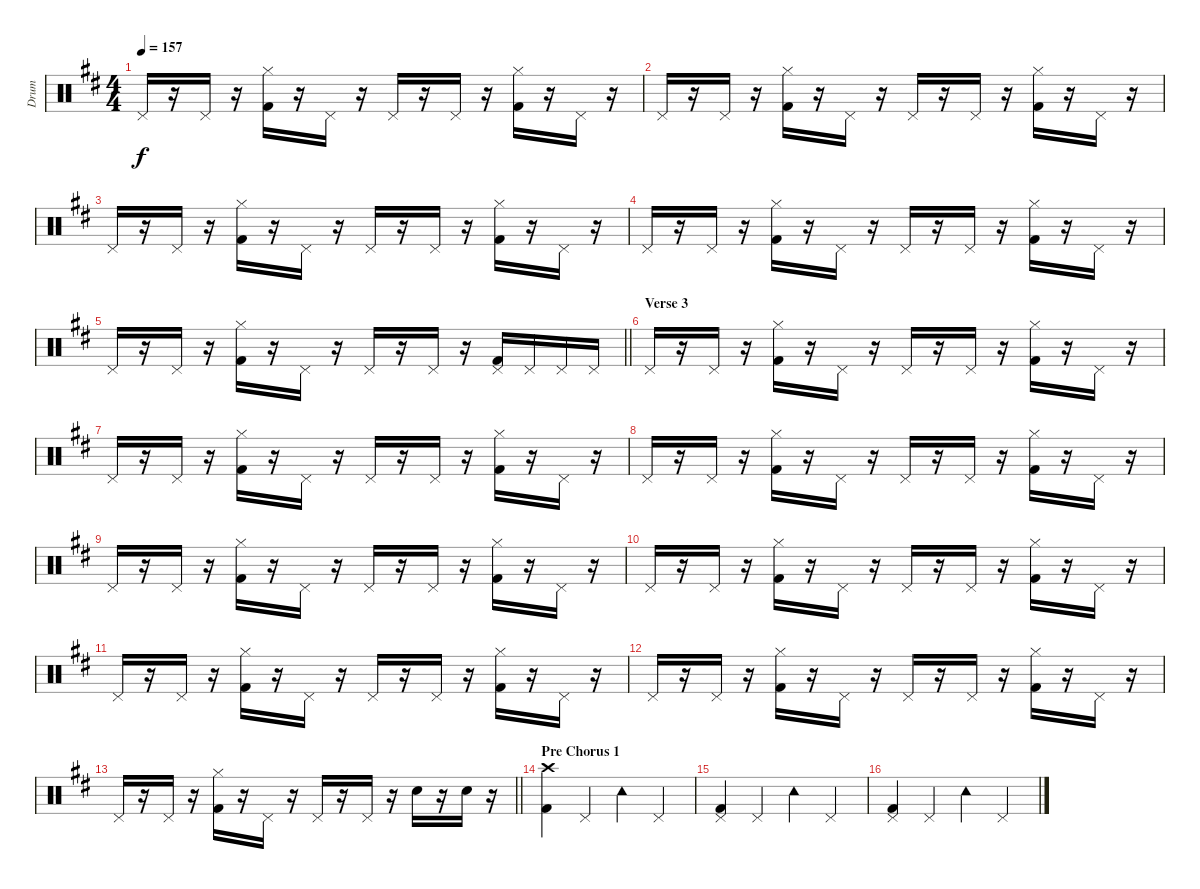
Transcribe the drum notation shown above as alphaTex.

\track ("Drum" "Drum") {instrument percussion}
\staff {score}
\articulation defaults
\ts (4 4)
\tempo 157
\clef neutral
\ks d "Pedal Hi-Hat (hit)".16{dy f}
r.16 "Pedal Hi-Hat (hit)".16 r.16 ("Hi-Hat (closed)" "Kick (hit) 2").16 r.16 "Pedal Hi-Hat (hit)".16 r.16 "Pedal Hi-Hat (hit)".16 r.16 "Pedal Hi-Hat (hit)".16 r.16 ("Hi-Hat (closed)" "Kick (hit) 2").16 r.16 "Pedal Hi-Hat (hit)".16 r.16 |
"Pedal Hi-Hat (hit)".16 r.16 "Pedal Hi-Hat (hit)".16 r.16 ("Hi-Hat (closed)" "Kick (hit) 2").16 r.16 "Pedal Hi-Hat (hit)".16 r.16 "Pedal Hi-Hat (hit)".16 r.16 "Pedal Hi-Hat (hit)".16 r.16 ("Hi-Hat (closed)" "Kick (hit) 2").16 r.16 "Pedal Hi-Hat (hit)".16 r.16 |
"Pedal Hi-Hat (hit)".16 r.16 "Pedal Hi-Hat (hit)".16 r.16 ("Hi-Hat (closed)" "Kick (hit) 2").16 r.16 "Pedal Hi-Hat (hit)".16 r.16 "Pedal Hi-Hat (hit)".16 r.16 "Pedal Hi-Hat (hit)".16 r.16 ("Hi-Hat (closed)" "Kick (hit) 2").16 r.16 "Pedal Hi-Hat (hit)".16 r.16 |
"Pedal Hi-Hat (hit)".16 r.16 "Pedal Hi-Hat (hit)".16 r.16 ("Hi-Hat (closed)" "Kick (hit) 2").16 r.16 "Pedal Hi-Hat (hit)".16 r.16 "Pedal Hi-Hat (hit)".16 r.16 "Pedal Hi-Hat (hit)".16 r.16 ("Hi-Hat (closed)" "Kick (hit) 2").16 r.16 "Pedal Hi-Hat (hit)".16 r.16 |
\barLineRight lightlight "Pedal Hi-Hat (hit)".16
r.16 "Pedal Hi-Hat (hit)".16 r.16 ("Hi-Hat (closed)" "Kick (hit) 2").16 r.16 "Pedal Hi-Hat (hit)".16 r.16 "Pedal Hi-Hat (hit)".16 r.16 "Pedal Hi-Hat (hit)".16 r.16 ("Pedal Hi-Hat (hit)" "Kick (hit) 2").16 "Pedal Hi-Hat (hit)".16 "Pedal Hi-Hat (hit)".16 "Pedal Hi-Hat (hit)".16 |
\section ("" "Verse 3")
"Pedal Hi-Hat (hit)".16 r.16 "Pedal Hi-Hat (hit)".16 r.16 ("Hi-Hat (closed)" "Kick (hit) 2").16 r.16 "Pedal Hi-Hat (hit)".16 r.16 "Pedal Hi-Hat (hit)".16 r.16 "Pedal Hi-Hat (hit)".16 r.16 ("Hi-Hat (closed)" "Kick (hit) 2").16 r.16 "Pedal Hi-Hat (hit)".16 r.16 |
"Pedal Hi-Hat (hit)".16 r.16 "Pedal Hi-Hat (hit)".16 r.16 ("Hi-Hat (closed)" "Kick (hit) 2").16 r.16 "Pedal Hi-Hat (hit)".16 r.16 "Pedal Hi-Hat (hit)".16 r.16 "Pedal Hi-Hat (hit)".16 r.16 ("Hi-Hat (closed)" "Kick (hit) 2").16 r.16 "Pedal Hi-Hat (hit)".16 r.16 |
"Pedal Hi-Hat (hit)".16 r.16 "Pedal Hi-Hat (hit)".16 r.16 ("Hi-Hat (closed)" "Kick (hit) 2").16 r.16 "Pedal Hi-Hat (hit)".16 r.16 "Pedal Hi-Hat (hit)".16 r.16 "Pedal Hi-Hat (hit)".16 r.16 ("Hi-Hat (closed)" "Kick (hit) 2").16 r.16 "Pedal Hi-Hat (hit)".16 r.16 |
"Pedal Hi-Hat (hit)".16 r.16 "Pedal Hi-Hat (hit)".16 r.16 ("Hi-Hat (closed)" "Kick (hit) 2").16 r.16 "Pedal Hi-Hat (hit)".16 r.16 "Pedal Hi-Hat (hit)".16 r.16 "Pedal Hi-Hat (hit)".16 r.16 ("Hi-Hat (closed)" "Kick (hit) 2").16 r.16 "Pedal Hi-Hat (hit)".16 r.16 |
"Pedal Hi-Hat (hit)".16 r.16 "Pedal Hi-Hat (hit)".16 r.16 ("Hi-Hat (closed)" "Kick (hit) 2").16 r.16 "Pedal Hi-Hat (hit)".16 r.16 "Pedal Hi-Hat (hit)".16 r.16 "Pedal Hi-Hat (hit)".16 r.16 ("Hi-Hat (closed)" "Kick (hit) 2").16 r.16 "Pedal Hi-Hat (hit)".16 r.16 |
"Pedal Hi-Hat (hit)".16 r.16 "Pedal Hi-Hat (hit)".16 r.16 ("Hi-Hat (closed)" "Kick (hit) 2").16 r.16 "Pedal Hi-Hat (hit)".16 r.16 "Pedal Hi-Hat (hit)".16 r.16 "Pedal Hi-Hat (hit)".16 r.16 ("Hi-Hat (closed)" "Kick (hit) 2").16 r.16 "Pedal Hi-Hat (hit)".16 r.16 |
"Pedal Hi-Hat (hit)".16 r.16 "Pedal Hi-Hat (hit)".16 r.16 ("Hi-Hat (closed)" "Kick (hit) 2").16 r.16 "Pedal Hi-Hat (hit)".16 r.16 "Pedal Hi-Hat (hit)".16 r.16 "Pedal Hi-Hat (hit)".16 r.16 ("Hi-Hat (closed)" "Kick (hit) 2").16 r.16 "Pedal Hi-Hat (hit)".16 r.16 |
\barLineRight lightlight "Pedal Hi-Hat (hit)".16
r.16 "Pedal Hi-Hat (hit)".16 r.16 ("Hi-Hat (closed)" "Kick (hit) 2").16 r.16 "Pedal Hi-Hat (hit)".16 r.16 "Pedal Hi-Hat (hit)".16 r.16 "Pedal Hi-Hat (hit)".16 r.16 "Electric Snare (hit)".16 r.16 "Electric Snare (hit)".16 r.16 |
\section ("" "Pre Chorus 1 ")
("Kick (hit) 2" "Crash high (hit)").4 "Pedal Hi-Hat (hit)".4 "Tambourine (hit)".4 "Pedal Hi-Hat (hit)".4 |
("Kick (hit) 2" "Pedal Hi-Hat (hit)").4 "Pedal Hi-Hat (hit)".4 "Tambourine (hit)".4 "Pedal Hi-Hat (hit)".4 |
("Kick (hit) 2" "Pedal Hi-Hat (hit)").4 "Pedal Hi-Hat (hit)".4 "Tambourine (hit)".4 "Pedal Hi-Hat (hit)".4
